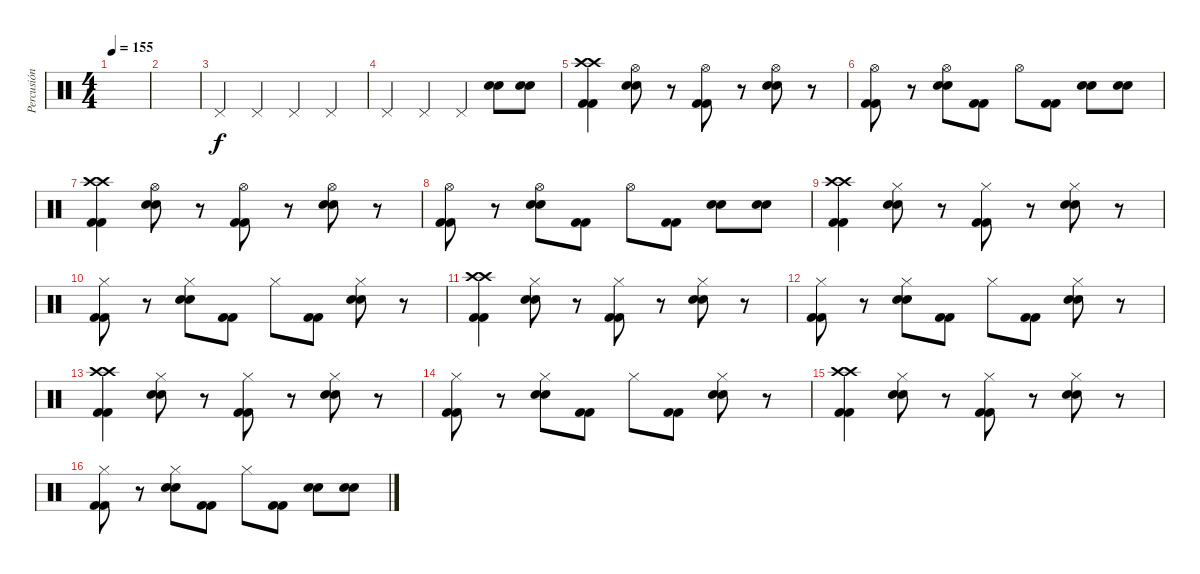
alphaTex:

\track ("Percusión" "Percusión") {instrument percussion}
\staff {score}
\articulation defaults
\ts (4 4)
\tempo 155
\clef neutral
\ks c
|
|
"Pedal Hi-Hat (hit)".4 "Pedal Hi-Hat (hit)".4 "Pedal Hi-Hat (hit)".4 "Pedal Hi-Hat (hit)".4 |
"Pedal Hi-Hat (hit)".4 "Pedal Hi-Hat (hit)".4 "Pedal Hi-Hat (hit)".4 ("Electric Snare (hit)" "Electric Snare (hit)").8 ("Electric Snare (hit)" "Electric Snare (hit)").8 |
("Crash high (hit)" "Crash high (hit)" "Kick (hit) 2" "Kick (hit) 2").4 ("Hi-Hat (open)" "Electric Snare (hit)" "Electric Snare (hit)").8 r.8 ("Hi-Hat (open)" "Kick (hit) 2" "Kick (hit) 2").8 r.8 ("Hi-Hat (open)" "Electric Snare (hit)" "Electric Snare (hit)").8 r.8 |
("Hi-Hat (open)" "Kick (hit) 2" "Kick (hit) 2").8 r.8 ("Hi-Hat (open)" "Electric Snare (hit)" "Electric Snare (hit)").8 ("Kick (hit) 2" "Kick (hit) 2").8 "Hi-Hat (open)".8 ("Kick (hit) 2" "Kick (hit) 2").8 ("Electric Snare (hit)" "Electric Snare (hit)").8 ("Electric Snare (hit)" "Electric Snare (hit)").8 |
("Crash high (hit)" "Crash high (hit)" "Kick (hit) 2" "Kick (hit) 2").4 ("Hi-Hat (open)" "Electric Snare (hit)" "Electric Snare (hit)").8 r.8 ("Hi-Hat (open)" "Kick (hit) 2" "Kick (hit) 2").8 r.8 ("Hi-Hat (open)" "Electric Snare (hit)" "Electric Snare (hit)").8 r.8 |
("Hi-Hat (open)" "Kick (hit) 2" "Kick (hit) 2").8 r.8 ("Hi-Hat (open)" "Electric Snare (hit)" "Electric Snare (hit)").8 ("Kick (hit) 2" "Kick (hit) 2").8 "Hi-Hat (open)".8 ("Kick (hit) 2" "Kick (hit) 2").8 ("Electric Snare (hit)" "Electric Snare (hit)").8 ("Electric Snare (hit)" "Electric Snare (hit)").8 |
("Crash high (hit)" "Crash high (hit)" "Kick (hit) 2" "Kick (hit) 2").4 ("Hi-Hat (closed)" "Electric Snare (hit)" "Electric Snare (hit)").8 r.8 ("Hi-Hat (closed)" "Kick (hit) 2" "Kick (hit) 2").8 r.8 ("Hi-Hat (closed)" "Electric Snare (hit)" "Electric Snare (hit)").8 r.8 |
("Hi-Hat (closed)" "Kick (hit) 2" "Kick (hit) 2").8 r.8 ("Hi-Hat (closed)" "Electric Snare (hit)" "Electric Snare (hit)").8 ("Kick (hit) 2" "Kick (hit) 2").8 "Hi-Hat (closed)".8 ("Kick (hit) 2" "Kick (hit) 2").8 ("Hi-Hat (closed)" "Electric Snare (hit)" "Electric Snare (hit)").8 r.8 |
("Crash high (hit)" "Crash high (hit)" "Kick (hit) 2" "Kick (hit) 2").4 ("Hi-Hat (closed)" "Electric Snare (hit)" "Electric Snare (hit)").8 r.8 ("Hi-Hat (closed)" "Kick (hit) 2" "Kick (hit) 2").8 r.8 ("Hi-Hat (closed)" "Electric Snare (hit)" "Electric Snare (hit)").8 r.8 |
("Hi-Hat (closed)" "Kick (hit) 2" "Kick (hit) 2").8 r.8 ("Hi-Hat (closed)" "Electric Snare (hit)" "Electric Snare (hit)").8 ("Kick (hit) 2" "Kick (hit) 2").8 "Hi-Hat (closed)".8 ("Kick (hit) 2" "Kick (hit) 2").8 ("Hi-Hat (closed)" "Electric Snare (hit)" "Electric Snare (hit)").8 r.8 |
("Crash high (hit)" "Crash high (hit)" "Kick (hit) 2" "Kick (hit) 2").4 ("Hi-Hat (closed)" "Electric Snare (hit)" "Electric Snare (hit)").8 r.8 ("Hi-Hat (closed)" "Kick (hit) 2" "Kick (hit) 2").8 r.8 ("Hi-Hat (closed)" "Electric Snare (hit)" "Electric Snare (hit)").8 r.8 |
("Hi-Hat (closed)" "Kick (hit) 2" "Kick (hit) 2").8 r.8 ("Hi-Hat (closed)" "Electric Snare (hit)" "Electric Snare (hit)").8 ("Kick (hit) 2" "Kick (hit) 2").8 "Hi-Hat (closed)".8 ("Kick (hit) 2" "Kick (hit) 2").8 ("Hi-Hat (closed)" "Electric Snare (hit)" "Electric Snare (hit)").8 r.8 |
("Crash high (hit)" "Crash high (hit)" "Kick (hit) 2" "Kick (hit) 2").4 ("Hi-Hat (closed)" "Electric Snare (hit)" "Electric Snare (hit)").8 r.8 ("Hi-Hat (closed)" "Kick (hit) 2" "Kick (hit) 2").8 r.8 ("Hi-Hat (closed)" "Electric Snare (hit)" "Electric Snare (hit)").8 r.8 |
("Hi-Hat (closed)" "Kick (hit) 2" "Kick (hit) 2").8 r.8 ("Hi-Hat (closed)" "Electric Snare (hit)" "Electric Snare (hit)").8 ("Kick (hit) 2" "Kick (hit) 2").8 "Hi-Hat (closed)".8 ("Kick (hit) 2" "Kick (hit) 2").8 ("Electric Snare (hit)" "Electric Snare (hit)").8 ("Electric Snare (hit)" "Electric Snare (hit)").8
